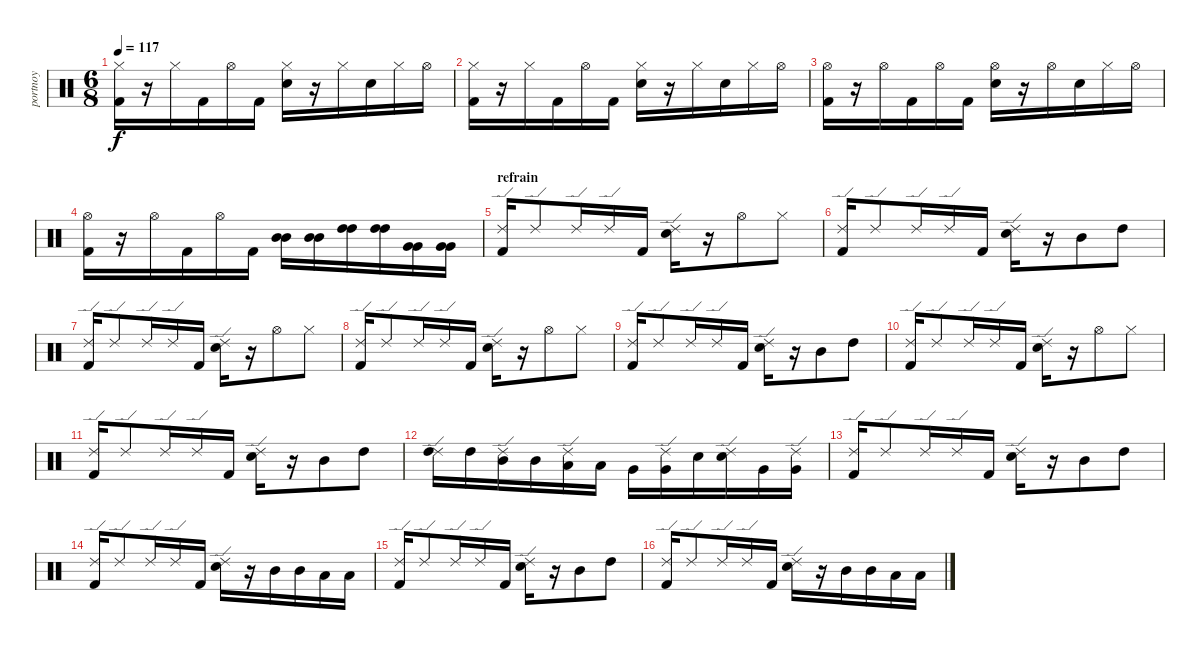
\track ("portnoy" "portnoy") {instrument percussion}
\staff {score}
\articulation defaults
\ts (6 8)
\tempo 117
\clef neutral
\ks c
("Hi-Hat (closed)" "Kick (hit) 2").16{dy f} r.16 "Hi-Hat (closed)".16 "Kick (hit) 2".16 "Hi-Hat (open)".16 "Kick (hit) 2".16 ("Hi-Hat (closed)" "Electric Snare (hit)").16 r.16 "Hi-Hat (closed)".16 "Electric Snare (hit)".16 "Hi-Hat (closed)".16 "Hi-Hat (open)".16 |
("Hi-Hat (closed)" "Kick (hit) 2").16 r.16 "Hi-Hat (closed)".16 "Kick (hit) 2".16 "Hi-Hat (open)".16 "Kick (hit) 2".16 ("Hi-Hat (closed)" "Electric Snare (hit)").16 r.16 "Hi-Hat (closed)".16 "Electric Snare (hit)".16 "Hi-Hat (closed)".16 "Hi-Hat (open)".16 |
("Hi-Hat (open)" "Kick (hit) 2").16 r.16 "Hi-Hat (open)".16 "Kick (hit) 2".16 "Hi-Hat (open)".16 "Kick (hit) 2".16 ("Hi-Hat (open)" "Electric Snare (hit)").16 r.16 "Hi-Hat (open)".16 "Electric Snare (hit)".16 "Hi-Hat (closed)".16 "Hi-Hat (open)".16 |
("Hi-Hat (open)" "Kick (hit) 2").16 r.16 "Hi-Hat (open)".16 "Kick (hit) 2".16 "Hi-Hat (open)".16 "Kick (hit) 2".16 ("Mid Tom (hit)" "Mid Tom (hit)").16 ("Mid Tom (hit)" "Mid Tom (hit)").16 ("High Tom (hit)" "High Tom (hit)").16 ("High Tom (hit)" "High Tom (hit)").16 ("Very Low Tom (hit)" "Very Low Tom (hit)").16 ("Very Low Tom (hit)" "Very Low Tom (hit)").16 |
\section ("" "refrain")
("Ride (edge) 2" "Kick (hit) 2").16 "Ride (edge) 2".8 "Ride (edge) 2".16 "Ride (edge) 2".16 "Kick (hit) 2".16 ("Ride (edge) 2" "Electric Snare (hit)").16 r.16 "Hi-Hat (open)".8 "Hi-Hat (closed)".8 |
("Ride (edge) 2" "Kick (hit) 2").16 "Ride (edge) 2".8 "Ride (edge) 2".16 "Ride (edge) 2".16 "Kick (hit) 2".16 ("Ride (edge) 2" "Electric Snare (hit)").16 r.16 "Mid Tom (hit)".8 "High Tom (hit)".8 |
("Ride (edge) 2" "Kick (hit) 2").16 "Ride (edge) 2".8 "Ride (edge) 2".16 "Ride (edge) 2".16 "Kick (hit) 2".16 ("Ride (edge) 2" "Electric Snare (hit)").16 r.16 "Hi-Hat (open)".8 "Hi-Hat (closed)".8 |
("Ride (edge) 2" "Kick (hit) 2").16 "Ride (edge) 2".8 "Ride (edge) 2".16 "Ride (edge) 2".16 "Kick (hit) 2".16 ("Ride (edge) 2" "Electric Snare (hit)").16 r.16 "Hi-Hat (open)".8 "Hi-Hat (closed)".8 |
("Ride (edge) 2" "Kick (hit) 2").16 "Ride (edge) 2".8 "Ride (edge) 2".16 "Ride (edge) 2".16 "Kick (hit) 2".16 ("Ride (edge) 2" "Electric Snare (hit)").16 r.16 "Mid Tom (hit)".8 "High Tom (hit)".8 |
("Ride (edge) 2" "Kick (hit) 2").16 "Ride (edge) 2".8 "Ride (edge) 2".16 "Ride (edge) 2".16 "Kick (hit) 2".16 ("Ride (edge) 2" "Electric Snare (hit)").16 r.16 "Hi-Hat (open)".8 "Hi-Hat (closed)".8 |
("Ride (edge) 2" "Kick (hit) 2").16 "Ride (edge) 2".8 "Ride (edge) 2".16 "Ride (edge) 2".16 "Kick (hit) 2".16 ("Ride (edge) 2" "Electric Snare (hit)").16 r.16 "Mid Tom (hit)".8 "High Tom (hit)".8 |
("Ride (edge) 2" "High Tom (hit)").16 "High Tom (hit)".16 ("Ride (edge) 2" "Mid Tom (hit)").16 "Mid Tom (hit)".16 ("Ride (edge) 2" "Low Tom (hit)").16 "Low Tom (hit)".16 "Very Low Tom (hit)".16 ("Ride (edge) 2" "Very Low Tom (hit)").16 "Electric Snare (hit)".16 ("Ride (edge) 2" "Electric Snare (hit)").16 "Very Low Tom (hit)".16 ("Ride (edge) 2" "Very Low Tom (hit)").16 |
("Ride (edge) 2" "Kick (hit) 2").16 "Ride (edge) 2".8 "Ride (edge) 2".16 "Ride (edge) 2".16 "Kick (hit) 2".16 ("Ride (edge) 2" "Electric Snare (hit)").16 r.16 "Mid Tom (hit)".8 "High Tom (hit)".8 |
("Ride (edge) 2" "Kick (hit) 2").16 "Ride (edge) 2".8 "Ride (edge) 2".16 "Ride (edge) 2".16 "Kick (hit) 2".16 ("Ride (edge) 2" "Electric Snare (hit)").16 r.16 "Mid Tom (hit)".16 "Mid Tom (hit)".16 "Low Tom (hit)".16 "Low Tom (hit)".16 |
("Ride (edge) 2" "Kick (hit) 2").16 "Ride (edge) 2".8 "Ride (edge) 2".16 "Ride (edge) 2".16 "Kick (hit) 2".16 ("Ride (edge) 2" "Electric Snare (hit)").16 r.16 "Mid Tom (hit)".8 "High Tom (hit)".8 |
("Ride (edge) 2" "Kick (hit) 2").16 "Ride (edge) 2".8 "Ride (edge) 2".16 "Ride (edge) 2".16 "Kick (hit) 2".16 ("Ride (edge) 2" "Electric Snare (hit)").16 r.16 "Mid Tom (hit)".16 "Mid Tom (hit)".16 "Low Tom (hit)".16 "Low Tom (hit)".16
